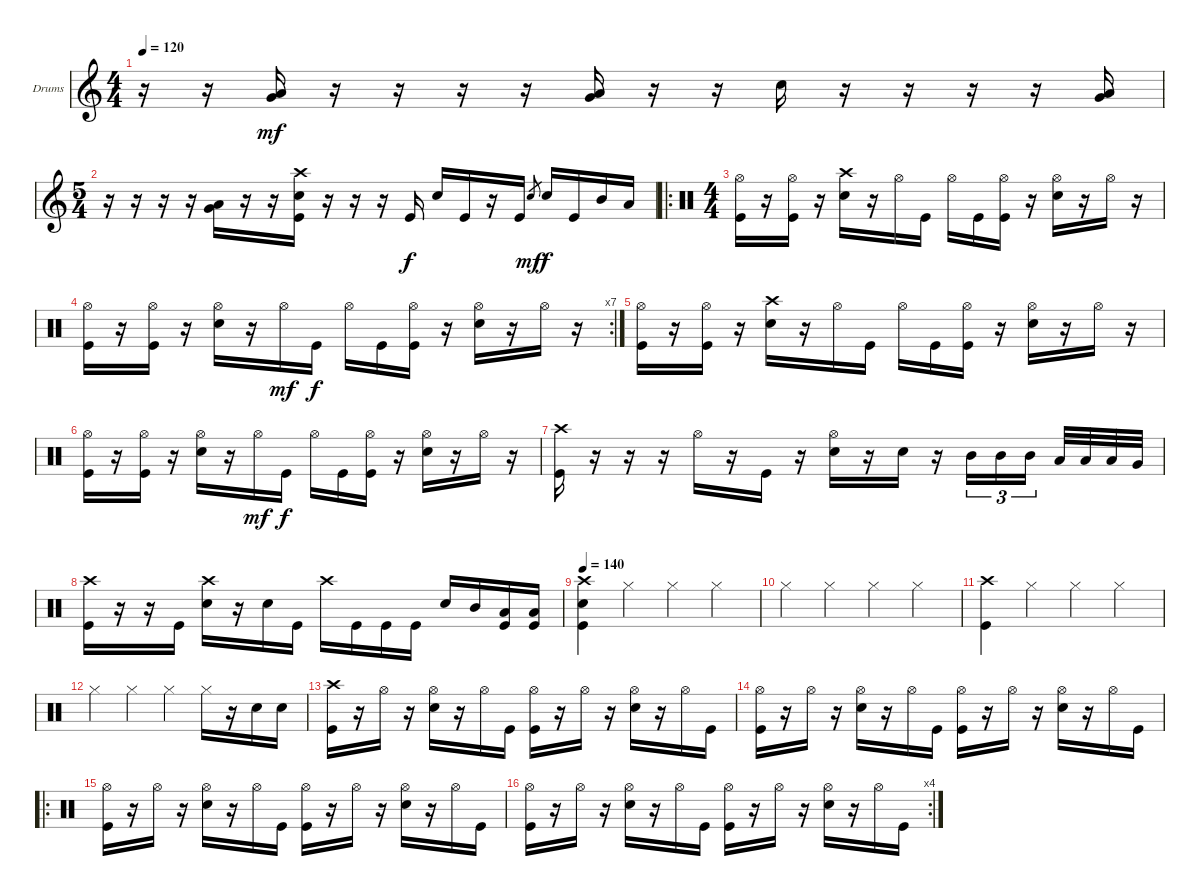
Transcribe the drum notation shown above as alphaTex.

\bracketExtendMode groupsimilarinstruments
\firstSystemTrackNameOrientation horizontal
\otherSystemsTrackNameOrientation horizontal
\track ("Drums" "Drums") {instrument percussion}
\staff {score}
\articulation defaults
\ts (4 4)
\tempo 120
\clef g2
\ks c
r.16{dy mf} r.16 ("Very Low Tom (hit)" "Low Tom (hit)").16 r.16 r.16 r.16 r.16 ("Very Low Tom (hit)" "Low Tom (hit)").16 r.16 r.16 "Snare (hit) 2".16 r.16 r.16 r.16 r.16 ("Very Low Tom (hit)" "Low Tom (hit)").16 |
\ts (5 4)
r.16 r.16 r.16 r.16 ("Very Low Tom (hit)" "Low Tom (hit)").16 r.16 r.16 ("Snare (hit) 2" "Kick (hit)" "Crash high (hit)").16 r.16 r.16 r.16 "Kick (hit)".16{dy f} "Snare (hit) 2".16 "Kick (hit)".16 r.16 "Kick (hit)".16 "Snare (hit) 2".8{gr dy mf} "Snare (hit) 2".16{dy f} "Kick (hit)".16 "Mid Tom (hit)".16 "Low Tom (hit)".16 |
\ro
\ts (4 4)
\clef neutral
("Hi-Hat (open)" "Kick (hit)").16 r.16 ("Hi-Hat (open)" "Kick (hit)").16 r.16 ("Crash high (hit)" "Snare (hit) 2").16 r.16 "Hi-Hat (open)".16 "Kick (hit)".16 "Hi-Hat (open)".16 "Kick (hit)".16 ("Hi-Hat (open)" "Kick (hit)").16 r.16 ("Hi-Hat (open)" "Snare (hit) 2").16 r.16 "Hi-Hat (open)".16 r.16 |
\rc 7
("Hi-Hat (open)" "Kick (hit)").16 r.16 ("Hi-Hat (open)" "Kick (hit)").16 r.16 ("Snare (hit) 2" "Hi-Hat (open)").16 r.16 "Hi-Hat (open)".16{dy mf} "Kick (hit)".16{dy f} "Hi-Hat (open)".16 "Kick (hit)".16 ("Hi-Hat (open)" "Kick (hit)").16 r.16 ("Hi-Hat (open)" "Snare (hit) 2").16 r.16 "Hi-Hat (open)".16 r.16 |
("Hi-Hat (open)" "Kick (hit)").16 r.16 ("Hi-Hat (open)" "Kick (hit)").16 r.16 ("Crash high (hit)" "Snare (hit) 2").16 r.16 "Hi-Hat (open)".16 "Kick (hit)".16 "Hi-Hat (open)".16 "Kick (hit)".16 ("Hi-Hat (open)" "Kick (hit)").16 r.16 ("Hi-Hat (open)" "Snare (hit) 2").16 r.16 "Hi-Hat (open)".16 r.16 |
("Hi-Hat (open)" "Kick (hit)").16 r.16 ("Hi-Hat (open)" "Kick (hit)").16 r.16 ("Snare (hit) 2" "Hi-Hat (open)").16 r.16 "Hi-Hat (open)".16{dy mf} "Kick (hit)".16{dy f} "Hi-Hat (open)".16 "Kick (hit)".16 ("Hi-Hat (open)" "Kick (hit)").16 r.16 ("Hi-Hat (open)" "Snare (hit) 2").16 r.16 "Hi-Hat (open)".16 r.16 |
("Crash high (hit)" "Kick (hit)").16 r.16 r.16 r.16 "Hi-Hat (open)".16 r.16 "Kick (hit)".16 r.16 ("Hi-Hat (open)" "Snare (hit) 2").16 r.16 "Snare (hit) 2".16 r.16 "Mid Tom (hit)".16{tu (3 2)} "Mid Tom (hit)".16{tu (3 2)} "Mid Tom (hit)".16{tu (3 2)} "Low Tom (hit)".32 "Low Tom (hit)".32 "Low Tom (hit)".32 "Very Low Tom (hit)".32 |
("Crash high (hit)" "Kick (hit)").16 r.16 r.16 "Kick (hit)".16 ("Crash high (hit)" "Snare (hit) 2").16 r.16 "Snare (hit) 2".16 "Kick (hit)".16 "Crash high (hit)".16 "Kick (hit)".16 "Kick (hit)".16 "Kick (hit)".16 "Snare (hit) 2".16 "Mid Tom (hit)".16 ("Low Tom (hit)" "Kick (hit)").16 ("Low Tom (hit)" "Kick (hit)").16 |
\tempo 140
("Crash high (hit)" "Kick (hit)" "Snare (hit) 2").4 "Hi-Hat (closed)".4 "Hi-Hat (closed)".4 "Hi-Hat (closed)".4 |
"Hi-Hat (closed)".4 "Hi-Hat (closed)".4 "Hi-Hat (closed)".4 "Hi-Hat (closed)".4 |
("Crash high (hit)" "Kick (hit)").4 "Hi-Hat (closed)".4 "Hi-Hat (closed)".4 "Hi-Hat (closed)".4 |
"Hi-Hat (closed)".4 "Hi-Hat (closed)".4 "Hi-Hat (closed)".4 "Hi-Hat (closed)".16 r.16 "Snare (hit) 2".16 "Snare (hit) 2".16 |
("Crash high (hit)" "Kick (hit)").16 r.16 "Hi-Hat (open)".16 r.16 ("Hi-Hat (open)" "Snare (hit) 2").16 r.16 "Hi-Hat (open)".16 "Kick (hit)".16 ("Hi-Hat (open)" "Kick (hit)").16 r.16 "Hi-Hat (open)".16 r.16 ("Hi-Hat (open)" "Snare (hit) 2").16 r.16 "Hi-Hat (open)".16 "Kick (hit)".16 |
("Kick (hit)" "Hi-Hat (open)").16 r.16 "Hi-Hat (open)".16 r.16 ("Hi-Hat (open)" "Snare (hit) 2").16 r.16 "Hi-Hat (open)".16 "Kick (hit)".16 ("Hi-Hat (open)" "Kick (hit)").16 r.16 "Hi-Hat (open)".16 r.16 ("Hi-Hat (open)" "Snare (hit) 2").16 r.16 "Hi-Hat (open)".16 "Kick (hit)".16 |
\ro
("Kick (hit)" "Hi-Hat (open)").16 r.16 "Hi-Hat (open)".16 r.16 ("Hi-Hat (open)" "Snare (hit) 2").16 r.16 "Hi-Hat (open)".16 "Kick (hit)".16 ("Hi-Hat (open)" "Kick (hit)").16 r.16 "Hi-Hat (open)".16 r.16 ("Hi-Hat (open)" "Snare (hit) 2").16 r.16 "Hi-Hat (open)".16 "Kick (hit)".16 |
\rc 4
("Kick (hit)" "Hi-Hat (open)").16 r.16 "Hi-Hat (open)".16 r.16 ("Hi-Hat (open)" "Snare (hit) 2").16 r.16 "Hi-Hat (open)".16 "Kick (hit)".16 ("Hi-Hat (open)" "Kick (hit)").16 r.16 "Hi-Hat (open)".16 r.16 ("Hi-Hat (open)" "Snare (hit) 2").16 r.16 "Hi-Hat (open)".16 "Kick (hit)".16
